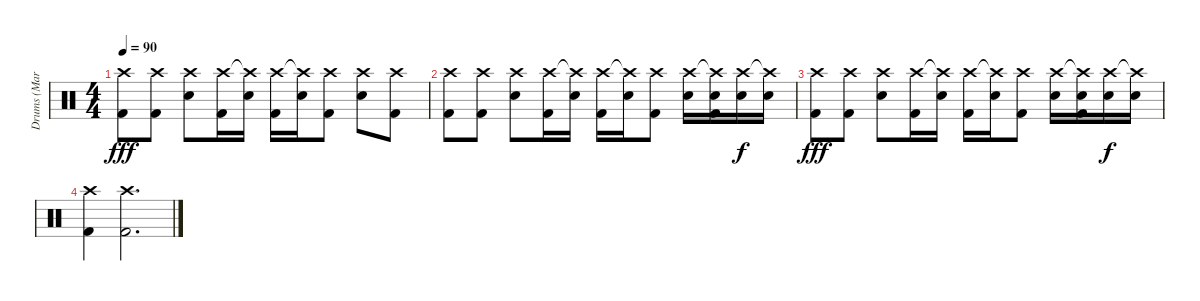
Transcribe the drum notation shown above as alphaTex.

\track ("Drums (Mark Escueta)" "Drums (Mar") {instrument percussion}
\staff {score}
\articulation defaults
\ts (4 4)
\tempo 90
\clef neutral
\ks c
("Crash high (hit)" "Kick (hit) 2").8{dy fff} ("Crash high (hit)" "Kick (hit) 2").8 ("Crash high (hit)" "Snare (hit) 2").8 ("Crash high (hit)" "Kick (hit) 2").16 ("Crash high (hit)"{t} "Snare (hit) 2").16 ("Crash high (hit)" "Kick (hit) 2").16 ("Crash high (hit)"{t} "Snare (hit) 2").16 ("Crash high (hit)" "Kick (hit) 2").8 ("Crash high (hit)" "Snare (hit) 2").8 ("Crash high (hit)" "Kick (hit) 2").8 |
("Crash high (hit)" "Kick (hit) 2").8 ("Crash high (hit)" "Kick (hit) 2").8 ("Crash high (hit)" "Snare (hit) 2").8 ("Crash high (hit)" "Kick (hit) 2").16 ("Crash high (hit)"{t} "Snare (hit) 2").16 ("Crash high (hit)" "Kick (hit) 2").16 ("Crash high (hit)"{t} "Snare (hit) 2").16 ("Crash high (hit)" "Kick (hit) 2").8 ("Crash high (hit)" "Snare (hit) 2").16 ("Crash high (hit)"{t} "Snare (hit) 2" "Kick (hit) 2").16 ("Crash high (hit)" "Snare (hit) 2").16{dy f} ("Crash high (hit)"{t} "Snare (hit) 2").16 |
("Crash high (hit)" "Kick (hit) 2").8{dy fff} ("Crash high (hit)" "Kick (hit) 2").8 ("Crash high (hit)" "Snare (hit) 2").8 ("Crash high (hit)" "Kick (hit) 2").16 ("Crash high (hit)"{t} "Snare (hit) 2").16 ("Crash high (hit)" "Kick (hit) 2").16 ("Crash high (hit)"{t} "Snare (hit) 2").16 ("Crash high (hit)" "Kick (hit) 2").8 ("Crash high (hit)" "Snare (hit) 2").16 ("Crash high (hit)"{t} "Snare (hit) 2" "Kick (hit) 2").16 ("Crash high (hit)" "Snare (hit) 2").16{dy f} ("Crash high (hit)"{t} "Snare (hit) 2").16 |
("Crash high (hit)" "Kick (hit) 2").4 ("Crash high (hit)" "Kick (hit) 2").2{d}
